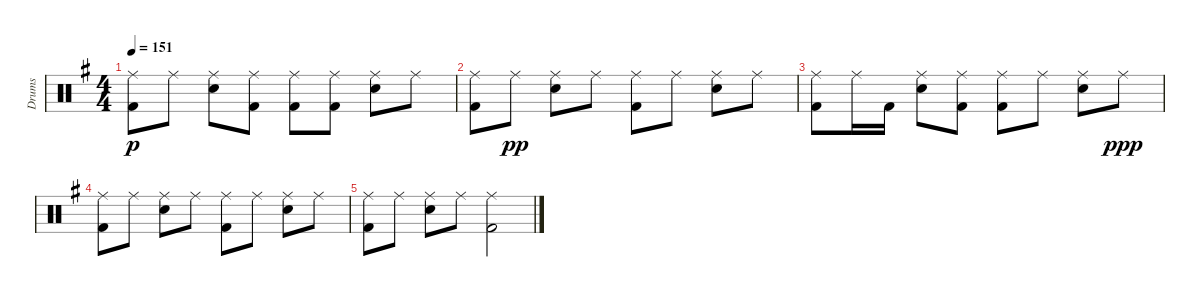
\track ("Drums " "Drums ") {instrument percussion}
\staff {score}
\articulation defaults
\ts (4 4)
\tempo 151
\clef neutral
\ks eminor
("Kick (hit) 2" "Ride (middle)").8{dy p} "Ride (middle)".8 ("Snare (hit) 2" "Ride (middle)").8 ("Kick (hit) 2" "Ride (middle)").8 ("Kick (hit) 2" "Ride (middle)").8 ("Kick (hit) 2" "Ride (middle)").8 ("Snare (hit) 2" "Ride (middle)").8 "Ride (middle)".8 |
("Kick (hit) 2" "Ride (middle)").8 "Ride (middle)".8{dy pp} ("Snare (hit) 2" "Ride (middle)").8 "Ride (middle)".8 ("Kick (hit) 2" "Ride (middle)").8 "Ride (middle)".8 ("Snare (hit) 2" "Ride (middle)").8 "Ride (middle)".8 |
("Kick (hit) 2" "Ride (middle)").8 "Ride (middle)".16 "Kick (hit) 2".16 ("Snare (hit) 2" "Ride (middle)").8 ("Kick (hit) 2" "Ride (middle)").8 ("Kick (hit) 2" "Ride (middle)").8 "Ride (middle)".8 ("Snare (hit) 2" "Ride (middle)").8 "Ride (middle)".8{dy ppp} |
("Kick (hit) 2" "Ride (middle)").8 "Ride (middle)".8 ("Snare (hit) 2" "Ride (middle)").8 "Ride (middle)".8 ("Kick (hit) 2" "Ride (middle)").8 "Ride (middle)".8 ("Snare (hit) 2" "Ride (middle)").8 "Ride (middle)".8 |
("Kick (hit) 2" "Ride (middle)").8 "Ride (middle)".8 ("Snare (hit) 2" "Ride (middle)").8 "Ride (middle)".8 ("Kick (hit) 2" "Ride (middle)").2
